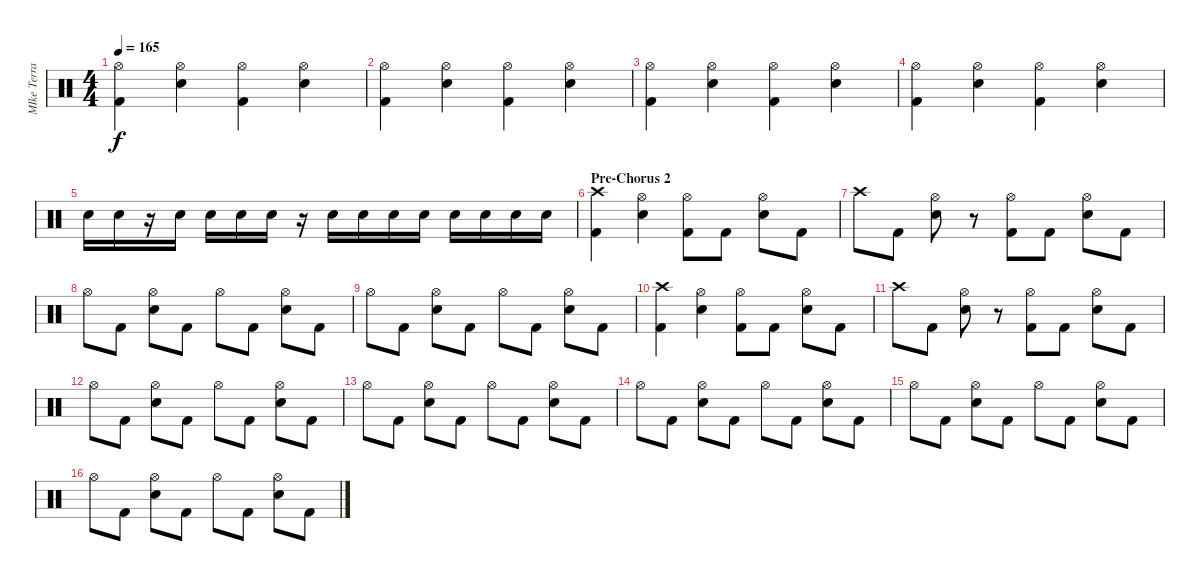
\track ("MIke Terrana - Batteria" "MIke Terra") {instrument percussion}
\staff {score}
\articulation defaults
\ts (4 4)
\tempo 165
\clef neutral
\ks c
("Kick (hit) 2" "Hi-Hat (open)").4{dy f} ("Electric Snare (hit)" "Hi-Hat (open)").4 ("Kick (hit) 2" "Hi-Hat (open)").4 ("Electric Snare (hit)" "Hi-Hat (open)").4 |
("Kick (hit) 2" "Hi-Hat (open)").4 ("Electric Snare (hit)" "Hi-Hat (open)").4 ("Kick (hit) 2" "Hi-Hat (open)").4 ("Electric Snare (hit)" "Hi-Hat (open)").4 |
("Kick (hit) 2" "Hi-Hat (open)").4 ("Electric Snare (hit)" "Hi-Hat (open)").4 ("Kick (hit) 2" "Hi-Hat (open)").4 ("Electric Snare (hit)" "Hi-Hat (open)").4 |
("Kick (hit) 2" "Hi-Hat (open)").4 ("Electric Snare (hit)" "Hi-Hat (open)").4 ("Kick (hit) 2" "Hi-Hat (open)").4 ("Electric Snare (hit)" "Hi-Hat (open)").4 |
"Electric Snare (hit)".16 "Electric Snare (hit)".16 r.16 "Electric Snare (hit)".16 "Electric Snare (hit)".16 "Electric Snare (hit)".16 "Electric Snare (hit)".16 r.16 "Electric Snare (hit)".16 "Electric Snare (hit)".16 "Electric Snare (hit)".16 "Electric Snare (hit)".16 "Electric Snare (hit)".16 "Electric Snare (hit)".16 "Electric Snare (hit)".16 "Electric Snare (hit)".16 |
\section ("" "Pre-Chorus 2")
("Kick (hit) 2" "Crash high (hit)").4 ("Electric Snare (hit)" "Hi-Hat (open)").4 ("Kick (hit) 2" "Hi-Hat (open)").8 "Kick (hit) 2".8 ("Electric Snare (hit)" "Hi-Hat (open)").8 "Kick (hit) 2".8 |
"Crash high (hit)".8 "Kick (hit) 2".8 ("Electric Snare (hit)" "Hi-Hat (open)").8 r.8 ("Kick (hit) 2" "Hi-Hat (open)").8 "Kick (hit) 2".8 ("Electric Snare (hit)" "Hi-Hat (open)").8 "Kick (hit) 2".8 |
"Hi-Hat (open)".8 "Kick (hit) 2".8 ("Electric Snare (hit)" "Hi-Hat (open)").8 "Kick (hit) 2".8 "Hi-Hat (open)".8 "Kick (hit) 2".8 ("Electric Snare (hit)" "Hi-Hat (open)").8 "Kick (hit) 2".8 |
"Hi-Hat (open)".8 "Kick (hit) 2".8 ("Electric Snare (hit)" "Hi-Hat (open)").8 "Kick (hit) 2".8 "Hi-Hat (open)".8 "Kick (hit) 2".8 ("Electric Snare (hit)" "Hi-Hat (open)").8 "Kick (hit) 2".8 |
("Kick (hit) 2" "Crash high (hit)").4 ("Electric Snare (hit)" "Hi-Hat (open)").4 ("Kick (hit) 2" "Hi-Hat (open)").8 "Kick (hit) 2".8 ("Electric Snare (hit)" "Hi-Hat (open)").8 "Kick (hit) 2".8 |
"Crash high (hit)".8 "Kick (hit) 2".8 ("Electric Snare (hit)" "Hi-Hat (open)").8 r.8 ("Kick (hit) 2" "Hi-Hat (open)").8 "Kick (hit) 2".8 ("Electric Snare (hit)" "Hi-Hat (open)").8 "Kick (hit) 2".8 |
"Hi-Hat (open)".8 "Kick (hit) 2".8 ("Electric Snare (hit)" "Hi-Hat (open)").8 "Kick (hit) 2".8 "Hi-Hat (open)".8 "Kick (hit) 2".8 ("Electric Snare (hit)" "Hi-Hat (open)").8 "Kick (hit) 2".8 |
"Hi-Hat (open)".8 "Kick (hit) 2".8 ("Electric Snare (hit)" "Hi-Hat (open)").8 "Kick (hit) 2".8 "Hi-Hat (open)".8 "Kick (hit) 2".8 ("Electric Snare (hit)" "Hi-Hat (open)").8 "Kick (hit) 2".8 |
"Hi-Hat (open)".8 "Kick (hit) 2".8 ("Electric Snare (hit)" "Hi-Hat (open)").8 "Kick (hit) 2".8 "Hi-Hat (open)".8 "Kick (hit) 2".8 ("Electric Snare (hit)" "Hi-Hat (open)").8 "Kick (hit) 2".8 |
"Hi-Hat (open)".8 "Kick (hit) 2".8 ("Electric Snare (hit)" "Hi-Hat (open)").8 "Kick (hit) 2".8 "Hi-Hat (open)".8 "Kick (hit) 2".8 ("Electric Snare (hit)" "Hi-Hat (open)").8 "Kick (hit) 2".8 |
"Hi-Hat (open)".8 "Kick (hit) 2".8 ("Electric Snare (hit)" "Hi-Hat (open)").8 "Kick (hit) 2".8 "Hi-Hat (open)".8 "Kick (hit) 2".8 ("Electric Snare (hit)" "Hi-Hat (open)").8 "Kick (hit) 2".8
